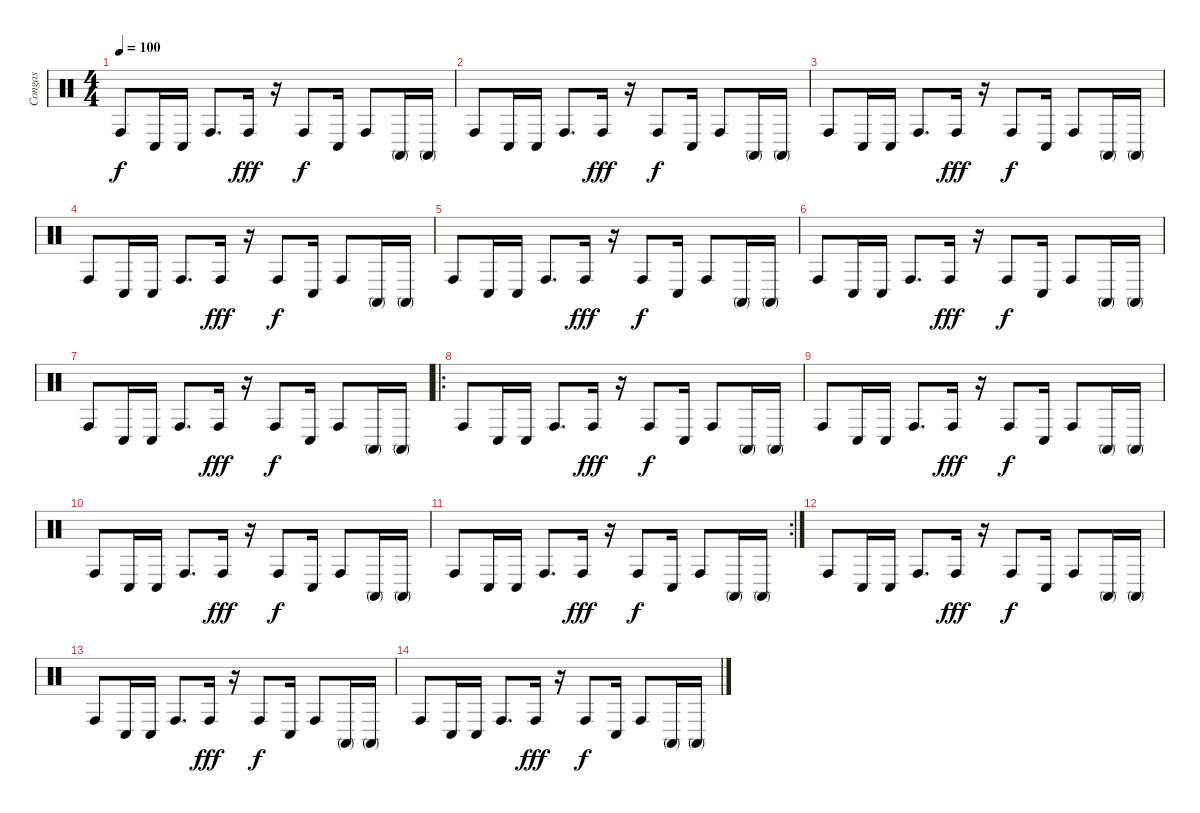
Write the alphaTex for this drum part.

\track ("Congas" "Congas") {instrument percussion}
\staff {score}
\articulation defaults
\ts (4 4)
\tempo 100
\clef neutral
\ks c "Conga high (hit)".8{dy f} "Conga low (hit)".16 "Conga low (hit)".16 "Conga high (hit)".8{d} "Conga high (hit)".16{dy fff}
r.16 "Conga high (hit)".8{dy f} "Conga low (hit)".16 "Conga high (hit)".8 "Conga high (mute)".16 "Conga high (mute)".16 |
"Conga high (hit)".8 "Conga low (hit)".16 "Conga low (hit)".16 "Conga high (hit)".8{d} "Conga high (hit)".16{dy fff} r.16 "Conga high (hit)".8{dy f} "Conga low (hit)".16 "Conga high (hit)".8 "Conga high (mute)".16 "Conga high (mute)".16 |
"Conga high (hit)".8 "Conga low (hit)".16 "Conga low (hit)".16 "Conga high (hit)".8{d} "Conga high (hit)".16{dy fff} r.16 "Conga high (hit)".8{dy f} "Conga low (hit)".16 "Conga high (hit)".8 "Conga high (mute)".16 "Conga high (mute)".16 |
"Conga high (hit)".8 "Conga low (hit)".16 "Conga low (hit)".16 "Conga high (hit)".8{d} "Conga high (hit)".16{dy fff} r.16 "Conga high (hit)".8{dy f} "Conga low (hit)".16 "Conga high (hit)".8 "Conga high (mute)".16 "Conga high (mute)".16 |
"Conga high (hit)".8 "Conga low (hit)".16 "Conga low (hit)".16 "Conga high (hit)".8{d} "Conga high (hit)".16{dy fff} r.16 "Conga high (hit)".8{dy f} "Conga low (hit)".16 "Conga high (hit)".8 "Conga high (mute)".16 "Conga high (mute)".16 |
"Conga high (hit)".8 "Conga low (hit)".16 "Conga low (hit)".16 "Conga high (hit)".8{d} "Conga high (hit)".16{dy fff} r.16 "Conga high (hit)".8{dy f} "Conga low (hit)".16 "Conga high (hit)".8 "Conga high (mute)".16 "Conga high (mute)".16 |
"Conga high (hit)".8 "Conga low (hit)".16 "Conga low (hit)".16 "Conga high (hit)".8{d} "Conga high (hit)".16{dy fff} r.16 "Conga high (hit)".8{dy f} "Conga low (hit)".16 "Conga high (hit)".8 "Conga high (mute)".16 "Conga high (mute)".16 |
\ro "Conga high (hit)".8 "Conga low (hit)".16 "Conga low (hit)".16 "Conga high (hit)".8{d} "Conga high (hit)".16{dy fff}
r.16 "Conga high (hit)".8{dy f} "Conga low (hit)".16 "Conga high (hit)".8 "Conga high (mute)".16 "Conga high (mute)".16 |
"Conga high (hit)".8 "Conga low (hit)".16 "Conga low (hit)".16 "Conga high (hit)".8{d} "Conga high (hit)".16{dy fff} r.16 "Conga high (hit)".8{dy f} "Conga low (hit)".16 "Conga high (hit)".8 "Conga high (mute)".16 "Conga high (mute)".16 |
"Conga high (hit)".8 "Conga low (hit)".16 "Conga low (hit)".16 "Conga high (hit)".8{d} "Conga high (hit)".16{dy fff} r.16 "Conga high (hit)".8{dy f} "Conga low (hit)".16 "Conga high (hit)".8 "Conga high (mute)".16 "Conga high (mute)".16 |
\rc 2 "Conga high (hit)".8 "Conga low (hit)".16 "Conga low (hit)".16 "Conga high (hit)".8{d} "Conga high (hit)".16{dy fff}
r.16 "Conga high (hit)".8{dy f} "Conga low (hit)".16 "Conga high (hit)".8 "Conga high (mute)".16 "Conga high (mute)".16 |
"Conga high (hit)".8 "Conga low (hit)".16 "Conga low (hit)".16 "Conga high (hit)".8{d} "Conga high (hit)".16{dy fff} r.16 "Conga high (hit)".8{dy f} "Conga low (hit)".16 "Conga high (hit)".8 "Conga high (mute)".16 "Conga high (mute)".16 |
"Conga high (hit)".8 "Conga low (hit)".16 "Conga low (hit)".16 "Conga high (hit)".8{d} "Conga high (hit)".16{dy fff} r.16 "Conga high (hit)".8{dy f} "Conga low (hit)".16 "Conga high (hit)".8 "Conga high (mute)".16 "Conga high (mute)".16 |
"Conga high (hit)".8 "Conga low (hit)".16 "Conga low (hit)".16 "Conga high (hit)".8{d} "Conga high (hit)".16{dy fff} r.16 "Conga high (hit)".8{dy f} "Conga low (hit)".16 "Conga high (hit)".8 "Conga high (mute)".16 "Conga high (mute)".16
